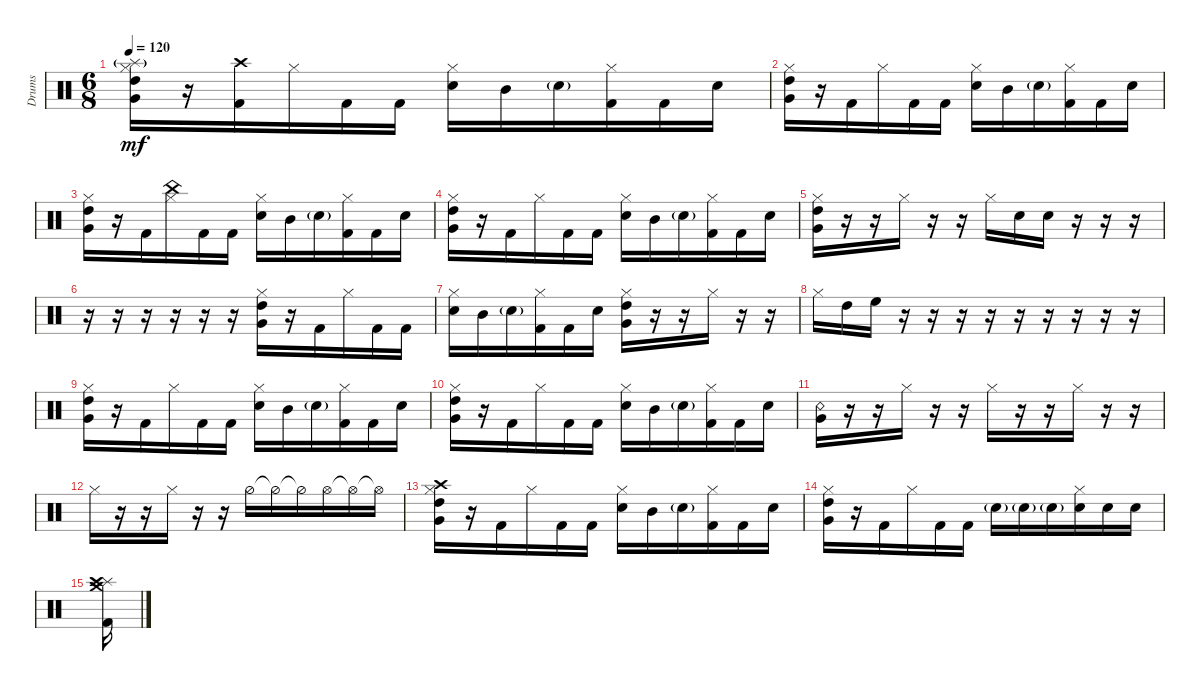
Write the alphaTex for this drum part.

\defaultSystemsLayout 4
\bracketExtendMode groupsimilarinstruments
\otherSystemsTrackNameOrientation horizontal
\track ("Drumkit" "Drums") {instrument percussion}
\staff {score}
\articulation defaults
\ts (6 8)
\tempo 120
\clef neutral
\ks c
("Very Low Tom (hit)" "Hi-Hat (closed)" "High Tom (hit)" "Splash (hit)"{g}).16{dy mf} r.16 ("Kick (hit) 2" "Crash high (hit)").16 "Hi-Hat (closed)".16 "Kick (hit) 2".16 "Kick (hit) 2".16 ("Snare (hit) 2" "Hi-Hat (closed)").16 "Mid Tom (hit)".16 "Snare (hit) 2"{g}.16 ("Kick (hit) 2" "Hi-Hat (closed)").16 "Kick (hit) 2".16 "Snare (hit) 2".16 |
("Very Low Tom (hit)" "Hi-Hat (closed)" "High Tom (hit)").16 r.16 "Kick (hit) 2".16 "Hi-Hat (closed)".16 "Kick (hit) 2".16 "Kick (hit) 2".16 ("Snare (hit) 2" "Hi-Hat (closed)").16 "Mid Tom (hit)".16 "Snare (hit) 2"{g}.16 ("Kick (hit) 2" "Hi-Hat (closed)").16 "Kick (hit) 2".16 "Snare (hit) 2".16 |
("Very Low Tom (hit)" "Hi-Hat (closed)" "High Tom (hit)").16 r.16 "Kick (hit) 2".16 ("Hi-Hat (closed)" "China (hit)").16 "Kick (hit) 2".16 "Kick (hit) 2".16 ("Snare (hit) 2" "Hi-Hat (closed)").16 "Mid Tom (hit)".16 "Snare (hit) 2"{g}.16 ("Kick (hit) 2" "Hi-Hat (closed)").16 "Kick (hit) 2".16 "Snare (hit) 2".16 |
("Very Low Tom (hit)" "Hi-Hat (closed)" "High Tom (hit)").16 r.16 "Kick (hit) 2".16 "Hi-Hat (closed)".16 "Kick (hit) 2".16 "Kick (hit) 2".16 ("Snare (hit) 2" "Hi-Hat (closed)").16 "Mid Tom (hit)".16 "Snare (hit) 2"{g}.16 ("Kick (hit) 2" "Hi-Hat (closed)").16 "Kick (hit) 2".16 "Snare (hit) 2".16 |
("Very Low Tom (hit)" "Hi-Hat (closed)" "High Tom (hit)").16 r.16 r.16 "Hi-Hat (closed)".16 r.16 r.16 "Hi-Hat (closed)".16 "Snare (hit) 2".16 "Snare (hit) 2".16 r.16 r.16 r.16 |
r.16 r.16 r.16 r.16 r.16 r.16 ("Very Low Tom (hit)" "Hi-Hat (closed)" "High Tom (hit)").16 r.16 "Kick (hit) 2".16 "Hi-Hat (closed)".16 "Kick (hit) 2".16 "Kick (hit) 2".16 |
("Snare (hit) 2" "Hi-Hat (closed)").16 "Mid Tom (hit)".16 "Snare (hit) 2"{g}.16 ("Kick (hit) 2" "Hi-Hat (closed)").16 "Kick (hit) 2".16 "Snare (hit) 2".16 ("Very Low Tom (hit)" "Hi-Hat (closed)" "High Tom (hit)").16 r.16 r.16 "Hi-Hat (closed)".16 r.16 r.16 |
"Hi-Hat (closed)".16 "High Tom (hit)".16 "High Floor Tom (hit)".16 r.16 r.16 r.16 r.16 r.16 r.16 r.16 r.16 r.16 |
("Very Low Tom (hit)" "Hi-Hat (closed)" "High Tom (hit)").16 r.16 "Kick (hit) 2".16 "Hi-Hat (closed)".16 "Kick (hit) 2".16 "Kick (hit) 2".16 ("Snare (hit) 2" "Hi-Hat (closed)").16 "Mid Tom (hit)".16 "Snare (hit) 2"{g}.16 ("Kick (hit) 2" "Hi-Hat (closed)").16 "Kick (hit) 2".16 "Snare (hit) 2".16 |
("Very Low Tom (hit)" "Hi-Hat (closed)" "High Tom (hit)").16 r.16 "Kick (hit) 2".16 "Hi-Hat (closed)".16 "Kick (hit) 2".16 "Kick (hit) 2".16 ("Snare (hit) 2" "Hi-Hat (closed)").16 "Mid Tom (hit)".16 "Snare (hit) 2"{g}.16 ("Kick (hit) 2" "Hi-Hat (closed)").16 "Kick (hit) 2".16 "Snare (hit) 2".16 |
("Very Low Tom (hit)" "Snare (rim shot)").16 r.16 r.16 "Hi-Hat (closed)".16 r.16 r.16 "Hi-Hat (closed)".16 r.16 r.16 "Hi-Hat (closed)".16 r.16 r.16 |
"Hi-Hat (closed)".16 r.16 r.16 "Hi-Hat (closed)".16 r.16 r.16 "Hi-Hat (half)".16 "Hi-Hat (half)"{t}.16 "Hi-Hat (half)"{t}.16 "Hi-Hat (open)".16 "Hi-Hat (open)"{t}.16 "Hi-Hat (open)"{t}.16 |
("Very Low Tom (hit)" "Hi-Hat (closed)" "High Tom (hit)" "Crash high (hit)").16 r.16 "Kick (hit) 2".16 "Hi-Hat (closed)".16 "Kick (hit) 2".16 "Kick (hit) 2".16 ("Snare (hit) 2" "Hi-Hat (closed)").16 "Mid Tom (hit)".16 "Snare (hit) 2"{g}.16 ("Kick (hit) 2" "Hi-Hat (closed)").16 "Kick (hit) 2".16 "Snare (hit) 2".16 |
("Very Low Tom (hit)" "Hi-Hat (closed)" "High Tom (hit)").16 r.16 "Kick (hit) 2".16 "Hi-Hat (closed)".16 "Kick (hit) 2".16 "Kick (hit) 2".16 "Snare (hit) 2"{g}.16 "Snare (hit) 2"{g}.16 "Snare (hit) 2"{g}.16 ("Hi-Hat (closed)" "Snare (hit) 2").16 "Snare (hit) 2".16 "Snare (hit) 2".16 |
("Kick (hit) 2" "Crash medium (hit)" "Splash (hit)" "Crash high (hit)").16
